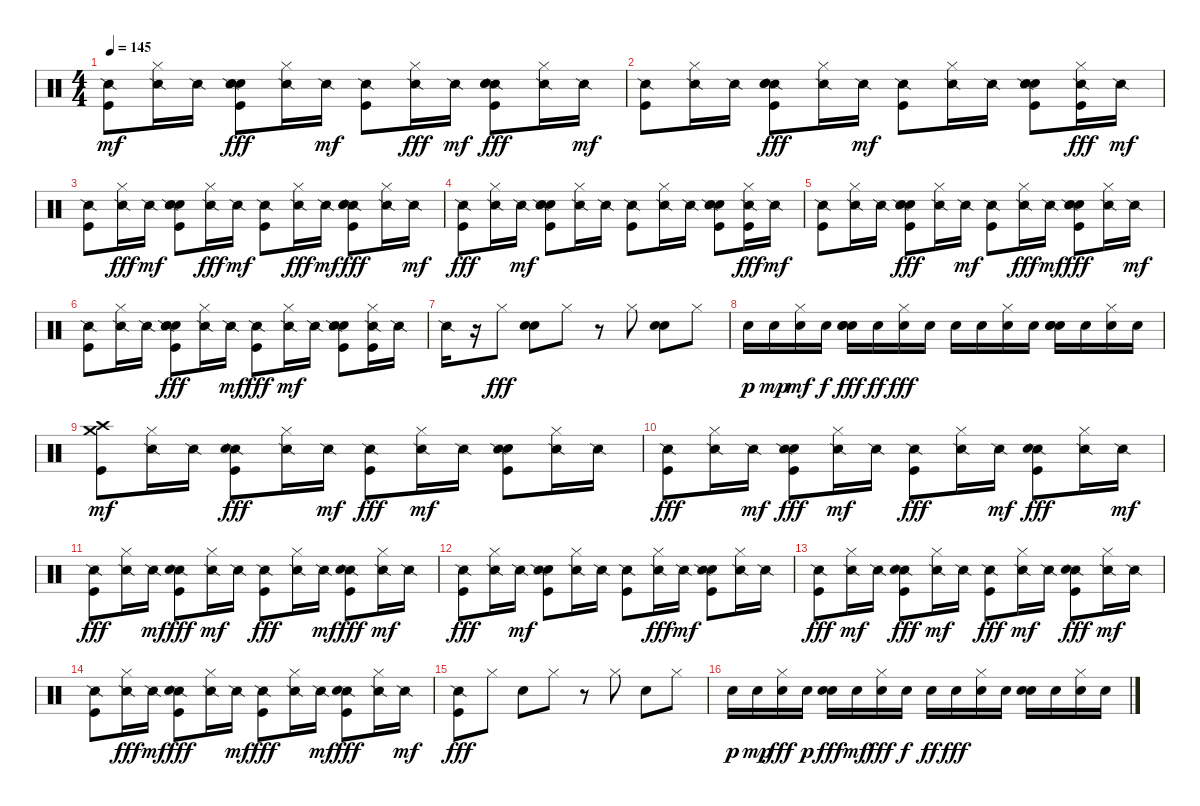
\track "" {instrument percussion}
\staff {score}
\articulation defaults
\ts (4 4)
\tempo 145
\clef neutral
\ks c
("Kick (hit)" "Snare (side stick) 2").8{dy mf} ("Hi-Hat (closed)" "Snare (side stick) 2").16 "Snare (side stick) 2".16 ("Kick (hit)" "Electric Snare (hit)" "Snare (side stick) 2" "Hand Clap (hit)").8{dy fff} ("Snare (side stick) 2" "Hi-Hat (closed)").16 "Snare (side stick) 2".16{dy mf} ("Kick (hit)" "Snare (side stick) 2").8 ("Snare (side stick) 2" "Hi-Hat (closed)").16{dy fff} "Snare (side stick) 2".16{dy mf} ("Kick (hit)" "Snare (side stick) 2" "Electric Snare (hit)" "Hand Clap (hit)").8{dy fff} ("Snare (side stick) 2" "Hi-Hat (closed)").16 "Snare (side stick) 2".16{dy mf} |
("Kick (hit)" "Snare (side stick) 2").8 ("Hi-Hat (closed)" "Snare (side stick) 2").16 "Snare (side stick) 2".16 ("Snare (side stick) 2" "Kick (hit)" "Hand Clap (hit)" "Electric Snare (hit)").8{dy fff} ("Snare (side stick) 2" "Hi-Hat (closed)").16 "Snare (side stick) 2".16{dy mf} ("Kick (hit)" "Snare (side stick) 2").8 ("Hi-Hat (closed)" "Snare (side stick) 2").16 "Snare (side stick) 2".16 ("Hand Clap (hit)" "Kick (hit)" "Snare (side stick) 2" "Electric Snare (hit)").8 ("Kick (hit)" "Snare (side stick) 2" "Hi-Hat (closed)").16{dy fff} "Snare (side stick) 2".16{dy mf} |
("Kick (hit)" "Snare (side stick) 2").8 ("Snare (side stick) 2" "Hi-Hat (closed)").16{dy fff} "Snare (side stick) 2".16{dy mf} ("Hand Clap (hit)" "Kick (hit)" "Snare (side stick) 2" "Electric Snare (hit)").8 ("Snare (side stick) 2" "Hi-Hat (closed)").16{dy fff} "Snare (side stick) 2".16{dy mf} ("Kick (hit)" "Snare (side stick) 2").8 ("Snare (side stick) 2" "Hi-Hat (closed)").16{dy fff} "Snare (side stick) 2".16{dy mf} ("Kick (hit)" "Snare (side stick) 2" "Hand Clap (hit)" "Electric Snare (hit)").8{dy fff} ("Snare (side stick) 2" "Hi-Hat (closed)").16 "Snare (side stick) 2".16{dy mf} |
("Snare (side stick) 2" "Kick (hit)").8{dy fff} ("Snare (side stick) 2" "Hi-Hat (closed)").16 "Snare (side stick) 2".16{dy mf} ("Electric Snare (hit)" "Kick (hit)" "Hand Clap (hit)" "Snare (side stick) 2").8 ("Hi-Hat (closed)" "Snare (side stick) 2").16 "Snare (side stick) 2".16 ("Kick (hit)" "Snare (side stick) 2").8 ("Hi-Hat (closed)" "Snare (side stick) 2").16 "Snare (side stick) 2".16 ("Kick (hit)" "Hand Clap (hit)" "Snare (side stick) 2" "Electric Snare (hit)").8 ("Kick (hit)" "Snare (side stick) 2" "Hi-Hat (closed)").16{dy fff} "Snare (side stick) 2".16{dy mf} |
("Kick (hit)" "Snare (side stick) 2").8 ("Hi-Hat (closed)" "Snare (side stick) 2").16 "Snare (side stick) 2".16 ("Electric Snare (hit)" "Kick (hit)" "Snare (side stick) 2" "Hand Clap (hit)").8{dy fff} ("Snare (side stick) 2" "Hi-Hat (closed)").16 "Snare (side stick) 2".16{dy mf} ("Kick (hit)" "Snare (side stick) 2").8 ("Snare (side stick) 2" "Hi-Hat (closed)").16{dy fff} "Snare (side stick) 2".16{dy mf} ("Hand Clap (hit)" "Snare (side stick) 2" "Kick (hit)" "Electric Snare (hit)").8{dy fff} ("Snare (side stick) 2" "Hi-Hat (closed)").16 "Snare (side stick) 2".16{dy mf} |
("Kick (hit)" "Snare (side stick) 2").8 ("Hi-Hat (closed)" "Snare (side stick) 2").16 "Snare (side stick) 2".16 ("Hand Clap (hit)" "Snare (side stick) 2" "Electric Snare (hit)" "Kick (hit)").8{dy fff} ("Snare (side stick) 2" "Hi-Hat (closed)").16 "Snare (side stick) 2".16{dy mf} ("Snare (side stick) 2" "Kick (hit)").8{dy fff} ("Hi-Hat (closed)" "Snare (side stick) 2").16{dy mf} "Snare (side stick) 2".16 ("Kick (hit)" "Hand Clap (hit)" "Electric Snare (hit)" "Snare (side stick) 2").8 ("Kick (hit)" "Hi-Hat (closed)" "Snare (side stick) 2").16 "Snare (side stick) 2".16 |
"Snare (side stick) 2".16 r.16 "Hi-Hat (closed)".8{dy fff} ("Electric Snare (hit)" "Hand Clap (hit)").8 "Hi-Hat (closed)".8 r.8 "Hi-Hat (closed)".8 ("Hand Clap (hit)" "Electric Snare (hit)").8 "Hi-Hat (closed)".8 |
"Snare (hit) 2".16{dy p} "Snare (hit) 2".16{dy mp} ("Hi-Hat (closed)" "Snare (hit) 2").16{dy mf} "Snare (hit) 2".16{dy f} ("Hand Clap (hit)" "Electric Snare (hit)" "Snare (hit) 2").16{dy fff} "Snare (hit) 2".16{dy ff} ("Hi-Hat (closed)" "Snare (hit) 2").16{dy fff} "Snare (hit) 2".16 "Snare (hit) 2".16 "Snare (hit) 2".16 ("Hi-Hat (closed)" "Snare (hit) 2").16 "Snare (hit) 2".16 ("Hand Clap (hit)" "Snare (hit) 2" "Electric Snare (hit)").16 "Snare (hit) 2".16 ("Hi-Hat (closed)" "Snare (hit) 2").16 "Snare (hit) 2".16 |
("Crash high (hit)" "Kick (hit)" "Crash medium (hit)").8{dy mf} ("Hi-Hat (closed)" "Snare (side stick) 2").16 "Snare (side stick) 2".16 ("Snare (side stick) 2" "Hand Clap (hit)" "Kick (hit)").8{dy fff} ("Snare (side stick) 2" "Hi-Hat (closed)").16 "Snare (side stick) 2".16{dy mf} ("Snare (side stick) 2" "Kick (hit)").8{dy fff} ("Hi-Hat (closed)" "Snare (side stick) 2").16{dy mf} "Snare (side stick) 2".16 ("Kick (hit)" "Hand Clap (hit)" "Snare (side stick) 2").8 ("Hi-Hat (closed)" "Snare (side stick) 2").16 "Snare (side stick) 2".16 |
("Snare (side stick) 2" "Kick (hit)").8{dy fff} ("Snare (side stick) 2" "Hi-Hat (closed)").16 "Snare (side stick) 2".16{dy mf} ("Hand Clap (hit)" "Snare (side stick) 2" "Kick (hit)").8{dy fff} ("Hi-Hat (closed)" "Snare (side stick) 2").16{dy mf} "Snare (side stick) 2".16 ("Snare (side stick) 2" "Kick (hit)").8{dy fff} ("Snare (side stick) 2" "Hi-Hat (closed)").16 "Snare (side stick) 2".16{dy mf} ("Kick (hit)" "Snare (side stick) 2" "Hand Clap (hit)").8{dy fff} ("Snare (side stick) 2" "Hi-Hat (closed)").16 "Snare (side stick) 2".16{dy mf} |
("Snare (side stick) 2" "Kick (hit)").8{dy fff} ("Snare (side stick) 2" "Hi-Hat (closed)").16 "Snare (side stick) 2".16{dy mf} ("Snare (side stick) 2" "Kick (hit)" "Hand Clap (hit)").8{dy fff} ("Hi-Hat (closed)" "Snare (side stick) 2").16{dy mf} "Snare (side stick) 2".16 ("Snare (side stick) 2" "Kick (hit)").8{dy fff} ("Snare (side stick) 2" "Hi-Hat (closed)").16 "Snare (side stick) 2".16{dy mf} ("Snare (side stick) 2" "Hand Clap (hit)" "Kick (hit)").8{dy fff} ("Hi-Hat (closed)" "Snare (side stick) 2").16{dy mf} "Snare (side stick) 2".16 |
("Snare (side stick) 2" "Kick (hit)").8{dy fff} ("Snare (side stick) 2" "Hi-Hat (closed)").16 "Snare (side stick) 2".16{dy mf} ("Hand Clap (hit)" "Kick (hit)" "Snare (side stick) 2").8 ("Hi-Hat (closed)" "Snare (side stick) 2").16 "Snare (side stick) 2".16 ("Kick (hit)" "Snare (side stick) 2").8 ("Snare (side stick) 2" "Hi-Hat (closed)").16{dy fff} "Snare (side stick) 2".16{dy mf} ("Kick (hit)" "Hand Clap (hit)" "Snare (side stick) 2").8 ("Hi-Hat (closed)" "Snare (side stick) 2").16 "Snare (side stick) 2".16 |
("Snare (side stick) 2" "Kick (hit)").8{dy fff} ("Hi-Hat (closed)" "Snare (side stick) 2").16{dy mf} "Snare (side stick) 2".16 ("Kick (hit)" "Snare (side stick) 2" "Hand Clap (hit)").8{dy fff} ("Hi-Hat (closed)" "Snare (side stick) 2").16{dy mf} "Snare (side stick) 2".16 ("Snare (side stick) 2" "Kick (hit)").8{dy fff} ("Hi-Hat (closed)" "Snare (side stick) 2").16{dy mf} "Snare (side stick) 2".16 ("Snare (side stick) 2" "Kick (hit)" "Hand Clap (hit)").8{dy fff} ("Hi-Hat (closed)" "Snare (side stick) 2").16{dy mf} "Snare (side stick) 2".16 |
("Kick (hit)" "Snare (side stick) 2").8 ("Snare (side stick) 2" "Hi-Hat (closed)").16{dy fff} "Snare (side stick) 2".16{dy mf} ("Snare (side stick) 2" "Hand Clap (hit)" "Kick (hit)").8{dy fff} ("Snare (side stick) 2" "Hi-Hat (closed)").16 "Snare (side stick) 2".16{dy mf} ("Snare (side stick) 2" "Kick (hit)").8{dy fff} ("Snare (side stick) 2" "Hi-Hat (closed)").16 "Snare (side stick) 2".16{dy mf} ("Kick (hit)" "Snare (side stick) 2" "Hand Clap (hit)").8{dy fff} ("Snare (side stick) 2" "Hi-Hat (closed)").16 "Snare (side stick) 2".16{dy mf} |
("Snare (side stick) 2" "Kick (hit)").8{dy fff} "Hi-Hat (closed)".8 "Hand Clap (hit)".8 "Hi-Hat (closed)".8 r.8 "Hi-Hat (closed)".8 "Hand Clap (hit)".8 "Hi-Hat (closed)".8 |
"Snare (hit) 2".16{dy p} "Snare (hit) 2".16{dy mp} ("Snare (hit) 2" "Hi-Hat (closed)").16{dy fff} "Snare (hit) 2".16{dy p} ("Snare (hit) 2" "Hand Clap (hit)").16{dy fff} "Snare (hit) 2".16{dy mf} ("Hi-Hat (closed)" "Snare (hit) 2").16{dy fff} "Snare (hit) 2".16{dy f} "Snare (hit) 2".16{dy ff} "Snare (hit) 2".16{dy fff} ("Hi-Hat (closed)" "Snare (hit) 2").16 "Snare (hit) 2".16 ("Snare (hit) 2" "Hand Clap (hit)").16 "Snare (hit) 2".16 ("Hi-Hat (closed)" "Snare (hit) 2").16 "Snare (hit) 2".16
